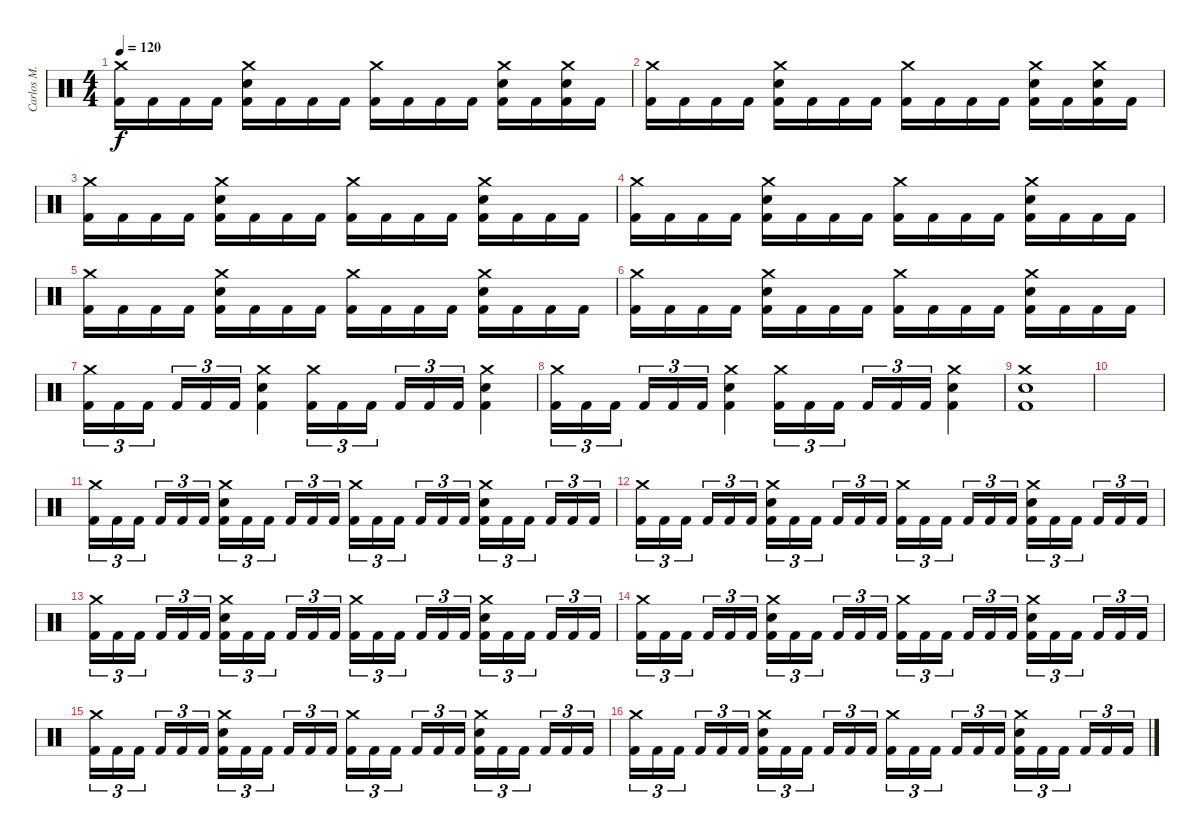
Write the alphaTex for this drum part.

\track ("Carlos M." "Carlos M.") {instrument percussion}
\staff {score}
\articulation defaults
\ts (4 4)
\tempo 120
\clef neutral
\ks c
("Crash medium (hit)" "Kick (hit) 2").16{dy f} "Kick (hit) 2".16 "Kick (hit) 2".16 "Kick (hit) 2".16 ("Crash medium (hit)" "Electric Snare (hit)" "Kick (hit) 2").16 "Kick (hit) 2".16 "Kick (hit) 2".16 "Kick (hit) 2".16 ("Crash medium (hit)" "Kick (hit) 2").16 "Kick (hit) 2".16 "Kick (hit) 2".16 "Kick (hit) 2".16 ("Crash medium (hit)" "Electric Snare (hit)" "Kick (hit) 2").16 "Kick (hit) 2".16 ("Crash medium (hit)" "Electric Snare (hit)" "Kick (hit) 2").16 "Kick (hit) 2".16 |
("Crash medium (hit)" "Kick (hit) 2").16 "Kick (hit) 2".16 "Kick (hit) 2".16 "Kick (hit) 2".16 ("Crash medium (hit)" "Electric Snare (hit)" "Kick (hit) 2").16 "Kick (hit) 2".16 "Kick (hit) 2".16 "Kick (hit) 2".16 ("Crash medium (hit)" "Kick (hit) 2").16 "Kick (hit) 2".16 "Kick (hit) 2".16 "Kick (hit) 2".16 ("Crash medium (hit)" "Electric Snare (hit)" "Kick (hit) 2").16 "Kick (hit) 2".16 ("Crash medium (hit)" "Electric Snare (hit)" "Kick (hit) 2").16 "Kick (hit) 2".16 |
("Crash medium (hit)" "Kick (hit) 2").16 "Kick (hit) 2".16 "Kick (hit) 2".16 "Kick (hit) 2".16 ("Crash medium (hit)" "Electric Snare (hit)" "Kick (hit) 2").16 "Kick (hit) 2".16 "Kick (hit) 2".16 "Kick (hit) 2".16 ("Crash medium (hit)" "Kick (hit) 2").16 "Kick (hit) 2".16 "Kick (hit) 2".16 "Kick (hit) 2".16 ("Crash medium (hit)" "Electric Snare (hit)" "Kick (hit) 2").16 "Kick (hit) 2".16 "Kick (hit) 2".16 "Kick (hit) 2".16 |
("Crash medium (hit)" "Kick (hit) 2").16 "Kick (hit) 2".16 "Kick (hit) 2".16 "Kick (hit) 2".16 ("Crash medium (hit)" "Electric Snare (hit)" "Kick (hit) 2").16 "Kick (hit) 2".16 "Kick (hit) 2".16 "Kick (hit) 2".16 ("Crash medium (hit)" "Kick (hit) 2").16 "Kick (hit) 2".16 "Kick (hit) 2".16 "Kick (hit) 2".16 ("Crash medium (hit)" "Electric Snare (hit)" "Kick (hit) 2").16 "Kick (hit) 2".16 "Kick (hit) 2".16 "Kick (hit) 2".16 |
("Crash medium (hit)" "Kick (hit) 2").16 "Kick (hit) 2".16 "Kick (hit) 2".16 "Kick (hit) 2".16 ("Crash medium (hit)" "Electric Snare (hit)" "Kick (hit) 2").16 "Kick (hit) 2".16 "Kick (hit) 2".16 "Kick (hit) 2".16 ("Crash medium (hit)" "Kick (hit) 2").16 "Kick (hit) 2".16 "Kick (hit) 2".16 "Kick (hit) 2".16 ("Crash medium (hit)" "Electric Snare (hit)" "Kick (hit) 2").16 "Kick (hit) 2".16 "Kick (hit) 2".16 "Kick (hit) 2".16 |
("Crash medium (hit)" "Kick (hit) 2").16 "Kick (hit) 2".16 "Kick (hit) 2".16 "Kick (hit) 2".16 ("Crash medium (hit)" "Electric Snare (hit)" "Kick (hit) 2").16 "Kick (hit) 2".16 "Kick (hit) 2".16 "Kick (hit) 2".16 ("Crash medium (hit)" "Kick (hit) 2").16 "Kick (hit) 2".16 "Kick (hit) 2".16 "Kick (hit) 2".16 ("Crash medium (hit)" "Electric Snare (hit)" "Kick (hit) 2").16 "Kick (hit) 2".16 "Kick (hit) 2".16 "Kick (hit) 2".16 |
("Crash medium (hit)" "Kick (hit) 2").16{tu (3 2)} "Kick (hit) 2".16{tu (3 2)} "Kick (hit) 2".16{tu (3 2)} "Kick (hit) 2".16{tu (3 2)} "Kick (hit) 2".16{tu (3 2)} "Kick (hit) 2".16{tu (3 2)} ("Crash medium (hit)" "Electric Snare (hit)" "Kick (hit) 2").4 ("Crash medium (hit)" "Kick (hit) 2").16{tu (3 2)} "Kick (hit) 2".16{tu (3 2)} "Kick (hit) 2".16{tu (3 2)} "Kick (hit) 2".16{tu (3 2)} "Kick (hit) 2".16{tu (3 2)} "Kick (hit) 2".16{tu (3 2)} ("Crash medium (hit)" "Electric Snare (hit)" "Kick (hit) 2").4 |
("Crash medium (hit)" "Kick (hit) 2").16{tu (3 2)} "Kick (hit) 2".16{tu (3 2)} "Kick (hit) 2".16{tu (3 2)} "Kick (hit) 2".16{tu (3 2)} "Kick (hit) 2".16{tu (3 2)} "Kick (hit) 2".16{tu (3 2)} ("Crash medium (hit)" "Electric Snare (hit)" "Kick (hit) 2").4 ("Crash medium (hit)" "Kick (hit) 2").16{tu (3 2)} "Kick (hit) 2".16{tu (3 2)} "Kick (hit) 2".16{tu (3 2)} "Kick (hit) 2".16{tu (3 2)} "Kick (hit) 2".16{tu (3 2)} "Kick (hit) 2".16{tu (3 2)} ("Crash medium (hit)" "Electric Snare (hit)" "Kick (hit) 2").4 |
("Crash medium (hit)" "Electric Snare (hit)" "Kick (hit) 2").1 |
|
("Crash medium (hit)" "Kick (hit) 2").16{tu (3 2)} "Kick (hit) 2".16{tu (3 2)} "Kick (hit) 2".16{tu (3 2)} "Kick (hit) 2".16{tu (3 2)} "Kick (hit) 2".16{tu (3 2)} "Kick (hit) 2".16{tu (3 2)} ("Crash medium (hit)" "Electric Snare (hit)" "Kick (hit) 2").16{tu (3 2)} "Kick (hit) 2".16{tu (3 2)} "Kick (hit) 2".16{tu (3 2)} "Kick (hit) 2".16{tu (3 2)} "Kick (hit) 2".16{tu (3 2)} "Kick (hit) 2".16{tu (3 2)} ("Crash medium (hit)" "Kick (hit) 2").16{tu (3 2)} "Kick (hit) 2".16{tu (3 2)} "Kick (hit) 2".16{tu (3 2)} "Kick (hit) 2".16{tu (3 2)} "Kick (hit) 2".16{tu (3 2)} "Kick (hit) 2".16{tu (3 2)} ("Crash medium (hit)" "Electric Snare (hit)" "Kick (hit) 2").16{tu (3 2)} "Kick (hit) 2".16{tu (3 2)} "Kick (hit) 2".16{tu (3 2)} "Kick (hit) 2".16{tu (3 2)} "Kick (hit) 2".16{tu (3 2)} "Kick (hit) 2".16{tu (3 2)} |
("Crash medium (hit)" "Kick (hit) 2").16{tu (3 2)} "Kick (hit) 2".16{tu (3 2)} "Kick (hit) 2".16{tu (3 2)} "Kick (hit) 2".16{tu (3 2)} "Kick (hit) 2".16{tu (3 2)} "Kick (hit) 2".16{tu (3 2)} ("Crash medium (hit)" "Electric Snare (hit)" "Kick (hit) 2").16{tu (3 2)} "Kick (hit) 2".16{tu (3 2)} "Kick (hit) 2".16{tu (3 2)} "Kick (hit) 2".16{tu (3 2)} "Kick (hit) 2".16{tu (3 2)} "Kick (hit) 2".16{tu (3 2)} ("Crash medium (hit)" "Kick (hit) 2").16{tu (3 2)} "Kick (hit) 2".16{tu (3 2)} "Kick (hit) 2".16{tu (3 2)} "Kick (hit) 2".16{tu (3 2)} "Kick (hit) 2".16{tu (3 2)} "Kick (hit) 2".16{tu (3 2)} ("Crash medium (hit)" "Electric Snare (hit)" "Kick (hit) 2").16{tu (3 2)} "Kick (hit) 2".16{tu (3 2)} "Kick (hit) 2".16{tu (3 2)} "Kick (hit) 2".16{tu (3 2)} "Kick (hit) 2".16{tu (3 2)} "Kick (hit) 2".16{tu (3 2)} |
("Crash medium (hit)" "Kick (hit) 2").16{tu (3 2)} "Kick (hit) 2".16{tu (3 2)} "Kick (hit) 2".16{tu (3 2)} "Kick (hit) 2".16{tu (3 2)} "Kick (hit) 2".16{tu (3 2)} "Kick (hit) 2".16{tu (3 2)} ("Electric Snare (hit)" "Crash medium (hit)" "Kick (hit) 2").16{tu (3 2)} "Kick (hit) 2".16{tu (3 2)} "Kick (hit) 2".16{tu (3 2)} "Kick (hit) 2".16{tu (3 2)} "Kick (hit) 2".16{tu (3 2)} "Kick (hit) 2".16{tu (3 2)} ("Crash medium (hit)" "Kick (hit) 2").16{tu (3 2)} "Kick (hit) 2".16{tu (3 2)} "Kick (hit) 2".16{tu (3 2)} "Kick (hit) 2".16{tu (3 2)} "Kick (hit) 2".16{tu (3 2)} "Kick (hit) 2".16{tu (3 2)} ("Crash medium (hit)" "Electric Snare (hit)" "Kick (hit) 2").16{tu (3 2)} "Kick (hit) 2".16{tu (3 2)} "Kick (hit) 2".16{tu (3 2)} "Kick (hit) 2".16{tu (3 2)} "Kick (hit) 2".16{tu (3 2)} "Kick (hit) 2".16{tu (3 2)} |
("Crash medium (hit)" "Kick (hit) 2").16{tu (3 2)} "Kick (hit) 2".16{tu (3 2)} "Kick (hit) 2".16{tu (3 2)} "Kick (hit) 2".16{tu (3 2)} "Kick (hit) 2".16{tu (3 2)} "Kick (hit) 2".16{tu (3 2)} ("Electric Snare (hit)" "Crash medium (hit)" "Kick (hit) 2").16{tu (3 2)} "Kick (hit) 2".16{tu (3 2)} "Kick (hit) 2".16{tu (3 2)} "Kick (hit) 2".16{tu (3 2)} "Kick (hit) 2".16{tu (3 2)} "Kick (hit) 2".16{tu (3 2)} ("Crash medium (hit)" "Kick (hit) 2").16{tu (3 2)} "Kick (hit) 2".16{tu (3 2)} "Kick (hit) 2".16{tu (3 2)} "Kick (hit) 2".16{tu (3 2)} "Kick (hit) 2".16{tu (3 2)} "Kick (hit) 2".16{tu (3 2)} ("Crash medium (hit)" "Electric Snare (hit)" "Kick (hit) 2").16{tu (3 2)} "Kick (hit) 2".16{tu (3 2)} "Kick (hit) 2".16{tu (3 2)} "Kick (hit) 2".16{tu (3 2)} "Kick (hit) 2".16{tu (3 2)} "Kick (hit) 2".16{tu (3 2)} |
("Crash medium (hit)" "Kick (hit) 2").16{tu (3 2)} "Kick (hit) 2".16{tu (3 2)} "Kick (hit) 2".16{tu (3 2)} "Kick (hit) 2".16{tu (3 2)} "Kick (hit) 2".16{tu (3 2)} "Kick (hit) 2".16{tu (3 2)} ("Electric Snare (hit)" "Crash medium (hit)" "Kick (hit) 2").16{tu (3 2)} "Kick (hit) 2".16{tu (3 2)} "Kick (hit) 2".16{tu (3 2)} "Kick (hit) 2".16{tu (3 2)} "Kick (hit) 2".16{tu (3 2)} "Kick (hit) 2".16{tu (3 2)} ("Crash medium (hit)" "Kick (hit) 2").16{tu (3 2)} "Kick (hit) 2".16{tu (3 2)} "Kick (hit) 2".16{tu (3 2)} "Kick (hit) 2".16{tu (3 2)} "Kick (hit) 2".16{tu (3 2)} "Kick (hit) 2".16{tu (3 2)} ("Crash medium (hit)" "Electric Snare (hit)" "Kick (hit) 2").16{tu (3 2)} "Kick (hit) 2".16{tu (3 2)} "Kick (hit) 2".16{tu (3 2)} "Kick (hit) 2".16{tu (3 2)} "Kick (hit) 2".16{tu (3 2)} "Kick (hit) 2".16{tu (3 2)} |
("Crash medium (hit)" "Kick (hit) 2").16{tu (3 2)} "Kick (hit) 2".16{tu (3 2)} "Kick (hit) 2".16{tu (3 2)} "Kick (hit) 2".16{tu (3 2)} "Kick (hit) 2".16{tu (3 2)} "Kick (hit) 2".16{tu (3 2)} ("Electric Snare (hit)" "Crash medium (hit)" "Kick (hit) 2").16{tu (3 2)} "Kick (hit) 2".16{tu (3 2)} "Kick (hit) 2".16{tu (3 2)} "Kick (hit) 2".16{tu (3 2)} "Kick (hit) 2".16{tu (3 2)} "Kick (hit) 2".16{tu (3 2)} ("Crash medium (hit)" "Kick (hit) 2").16{tu (3 2)} "Kick (hit) 2".16{tu (3 2)} "Kick (hit) 2".16{tu (3 2)} "Kick (hit) 2".16{tu (3 2)} "Kick (hit) 2".16{tu (3 2)} "Kick (hit) 2".16{tu (3 2)} ("Electric Snare (hit)" "Crash medium (hit)" "Kick (hit) 2").16{tu (3 2)} "Kick (hit) 2".16{tu (3 2)} "Kick (hit) 2".16{tu (3 2)} "Kick (hit) 2".16{tu (3 2)} "Kick (hit) 2".16{tu (3 2)} "Kick (hit) 2".16{tu (3 2)}
